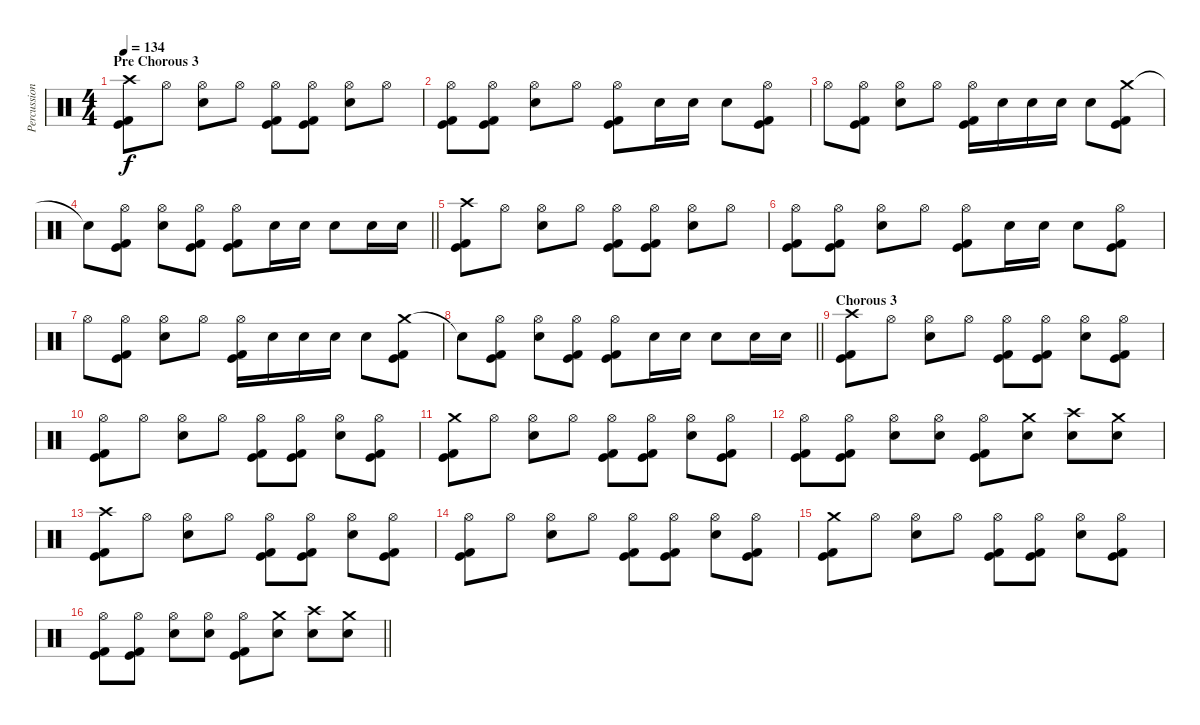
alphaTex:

\track ("Percussion" "Percussion") {instrument percussion}
\staff {score}
\articulation defaults
\ts (4 4)
\section ("" "Pre Chorous 3")
\tempo 134
\clef neutral
\ks c
("Crash high (hit)" "Kick (hit)" "Kick (hit) 2").8{dy f} "Hi-Hat (open)".8 ("Hi-Hat (open)" "Electric Snare (hit)").8 "Hi-Hat (open)".8 ("Hi-Hat (open)" "Kick (hit)" "Kick (hit) 2").8 ("Hi-Hat (open)" "Kick (hit)" "Kick (hit) 2").8 ("Hi-Hat (open)" "Electric Snare (hit)").8 "Hi-Hat (open)".8 |
("Hi-Hat (open)" "Kick (hit)" "Kick (hit) 2").8 ("Hi-Hat (open)" "Kick (hit)" "Kick (hit) 2").8 ("Hi-Hat (open)" "Electric Snare (hit)").8 "Hi-Hat (open)".8 ("Hi-Hat (open)" "Kick (hit)" "Kick (hit) 2").8 "Electric Snare (hit)".16 "Electric Snare (hit)".16 "Electric Snare (hit)".8 ("Hi-Hat (open)" "Kick (hit)" "Kick (hit) 2").8 |
"Hi-Hat (open)".8 ("Hi-Hat (open)" "Kick (hit)" "Kick (hit) 2").8 ("Hi-Hat (open)" "Electric Snare (hit)").8 "Hi-Hat (open)".8 ("Hi-Hat (open)" "Kick (hit)" "Kick (hit) 2").16 "Electric Snare (hit)".16 "Electric Snare (hit)".16 "Electric Snare (hit)".16 "Electric Snare (hit)".8 ("Crash medium (hit)" "Kick (hit)" "Kick (hit) 2").8 |
\barLineRight lightlight "Snare (hit)"{t}.8
("Hi-Hat (open)" "Kick (hit)" "Kick (hit) 2").8 ("Hi-Hat (open)" "Electric Snare (hit)").8 ("Hi-Hat (open)" "Kick (hit)" "Kick (hit) 2").8 ("Hi-Hat (open)" "Kick (hit)" "Kick (hit) 2").8 "Electric Snare (hit)".16 "Electric Snare (hit)".16 "Electric Snare (hit)".8 "Electric Snare (hit)".16 "Electric Snare (hit)".16 |
("Crash high (hit)" "Kick (hit)" "Kick (hit) 2").8 "Hi-Hat (open)".8 ("Hi-Hat (open)" "Electric Snare (hit)").8 "Hi-Hat (open)".8 ("Hi-Hat (open)" "Kick (hit)" "Kick (hit) 2").8 ("Hi-Hat (open)" "Kick (hit)" "Kick (hit) 2").8 ("Hi-Hat (open)" "Electric Snare (hit)").8 "Hi-Hat (open)".8 |
("Hi-Hat (open)" "Kick (hit)" "Kick (hit) 2").8 ("Hi-Hat (open)" "Kick (hit)" "Kick (hit) 2").8 ("Hi-Hat (open)" "Electric Snare (hit)").8 "Hi-Hat (open)".8 ("Hi-Hat (open)" "Kick (hit)" "Kick (hit) 2").8 "Electric Snare (hit)".16 "Electric Snare (hit)".16 "Electric Snare (hit)".8 ("Hi-Hat (open)" "Kick (hit)" "Kick (hit) 2").8 |
"Hi-Hat (open)".8 ("Hi-Hat (open)" "Kick (hit)" "Kick (hit) 2").8 ("Hi-Hat (open)" "Electric Snare (hit)").8 "Hi-Hat (open)".8 ("Hi-Hat (open)" "Kick (hit)" "Kick (hit) 2").16 "Electric Snare (hit)".16 "Electric Snare (hit)".16 "Electric Snare (hit)".16 "Electric Snare (hit)".8 ("Crash medium (hit)" "Kick (hit)" "Kick (hit) 2").8 |
\barLineRight lightlight "Snare (hit)"{t}.8
("Hi-Hat (open)" "Kick (hit)" "Kick (hit) 2").8 ("Hi-Hat (open)" "Electric Snare (hit)").8 ("Hi-Hat (open)" "Kick (hit)" "Kick (hit) 2").8 ("Hi-Hat (open)" "Kick (hit)" "Kick (hit) 2").8 "Electric Snare (hit)".16 "Electric Snare (hit)".16 "Electric Snare (hit)".8 "Electric Snare (hit)".16 "Electric Snare (hit)".16 |
\section ("" "Chorous 3")
("Crash high (hit)" "Kick (hit)" "Kick (hit) 2").8 "Hi-Hat (open)".8 ("Hi-Hat (open)" "Electric Snare (hit)").8 "Hi-Hat (open)".8 ("Hi-Hat (open)" "Kick (hit)" "Kick (hit) 2").8 ("Hi-Hat (open)" "Kick (hit)" "Kick (hit) 2").8 ("Hi-Hat (open)" "Electric Snare (hit)").8 ("Hi-Hat (open)" "Kick (hit)" "Kick (hit) 2").8 |
("Hi-Hat (open)" "Kick (hit)" "Kick (hit) 2").8 "Hi-Hat (open)".8 ("Hi-Hat (open)" "Electric Snare (hit)").8 "Hi-Hat (open)".8 ("Hi-Hat (open)" "Kick (hit)" "Kick (hit) 2").8 ("Hi-Hat (open)" "Kick (hit)" "Kick (hit) 2").8 ("Hi-Hat (open)" "Electric Snare (hit)").8 ("Hi-Hat (open)" "Kick (hit)" "Kick (hit) 2").8 |
("Crash medium (hit)" "Kick (hit)" "Kick (hit) 2").8 "Hi-Hat (open)".8 ("Hi-Hat (open)" "Electric Snare (hit)").8 "Hi-Hat (open)".8 ("Hi-Hat (open)" "Kick (hit)" "Kick (hit) 2").8 ("Hi-Hat (open)" "Kick (hit)" "Kick (hit) 2").8 ("Hi-Hat (open)" "Electric Snare (hit)").8 ("Hi-Hat (open)" "Kick (hit)" "Kick (hit) 2").8 |
("Hi-Hat (open)" "Kick (hit)" "Kick (hit) 2").8 ("Hi-Hat (open)" "Kick (hit)" "Kick (hit) 2").8 ("Hi-Hat (open)" "Electric Snare (hit)").8 ("Hi-Hat (open)" "Electric Snare (hit)").8 ("Hi-Hat (open)" "Kick (hit)" "Kick (hit) 2").8 ("Crash medium (hit)" "Electric Snare (hit)").8 ("Crash high (hit)" "Electric Snare (hit)").8 ("Crash medium (hit)" "Electric Snare (hit)").8 |
("Crash high (hit)" "Kick (hit)" "Kick (hit) 2").8 "Hi-Hat (open)".8 ("Hi-Hat (open)" "Electric Snare (hit)").8 "Hi-Hat (open)".8 ("Hi-Hat (open)" "Kick (hit)" "Kick (hit) 2").8 ("Hi-Hat (open)" "Kick (hit)" "Kick (hit) 2").8 ("Hi-Hat (open)" "Electric Snare (hit)").8 ("Hi-Hat (open)" "Kick (hit)" "Kick (hit) 2").8 |
("Hi-Hat (open)" "Kick (hit)" "Kick (hit) 2").8 "Hi-Hat (open)".8 ("Hi-Hat (open)" "Electric Snare (hit)").8 "Hi-Hat (open)".8 ("Hi-Hat (open)" "Kick (hit)" "Kick (hit) 2").8 ("Hi-Hat (open)" "Kick (hit)" "Kick (hit) 2").8 ("Hi-Hat (open)" "Electric Snare (hit)").8 ("Hi-Hat (open)" "Kick (hit)" "Kick (hit) 2").8 |
("Crash medium (hit)" "Kick (hit)" "Kick (hit) 2").8 "Hi-Hat (open)".8 ("Hi-Hat (open)" "Electric Snare (hit)").8 "Hi-Hat (open)".8 ("Hi-Hat (open)" "Kick (hit)" "Kick (hit) 2").8 ("Hi-Hat (open)" "Kick (hit)" "Kick (hit) 2").8 ("Hi-Hat (open)" "Electric Snare (hit)").8 ("Hi-Hat (open)" "Kick (hit)" "Kick (hit) 2").8 |
\barLineRight lightlight
("Hi-Hat (open)" "Kick (hit)" "Kick (hit) 2").8 ("Hi-Hat (open)" "Kick (hit)" "Kick (hit) 2").8 ("Hi-Hat (open)" "Electric Snare (hit)").8 ("Hi-Hat (open)" "Electric Snare (hit)").8 ("Hi-Hat (open)" "Kick (hit)" "Kick (hit) 2").8 ("Crash medium (hit)" "Electric Snare (hit)").8 ("Crash high (hit)" "Electric Snare (hit)").8 ("Crash medium (hit)" "Electric Snare (hit)").8
